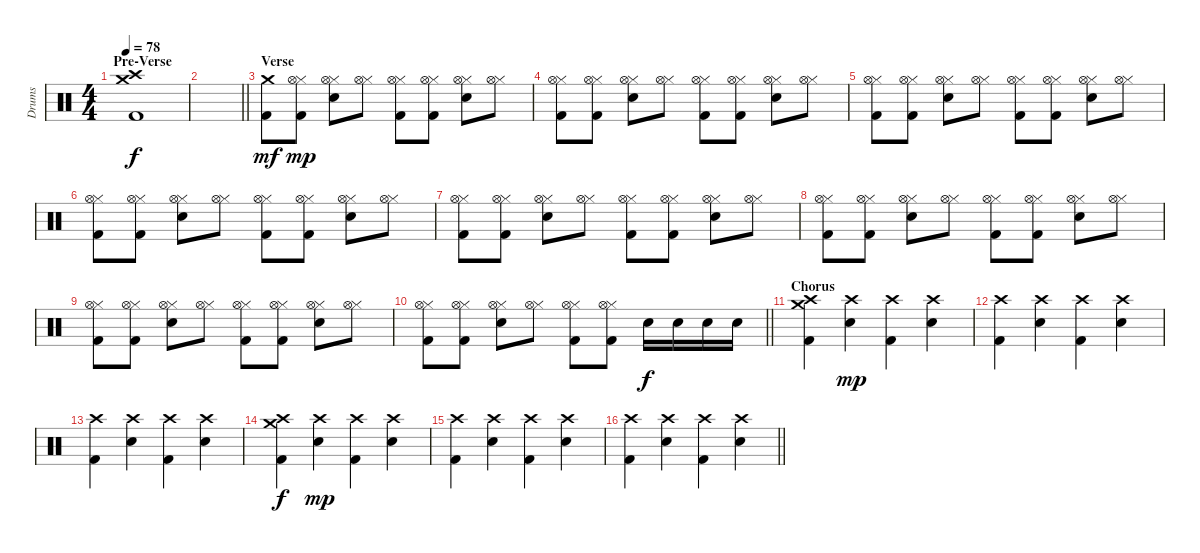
\track ("Drums" "Drums") {instrument percussion}
\staff {score}
\articulation defaults
\ts (4 4)
\section ("" "Pre-Verse")
\tempo 78
\clef neutral
\ks c
("Kick (hit) 2" "Crash medium (hit)" "Crash high (hit)").1{dy f} |
\barLineRight lightlight
|
\section ("" "Verse")
("Kick (hit) 2" "Crash medium (hit)").8{dy mf} ("Kick (hit) 2" "Hi-Hat (closed)" "Hi-Hat (open)").8{dy mp} ("Snare (hit) 2" "Hi-Hat (closed)" "Hi-Hat (open)").8 ("Hi-Hat (closed)" "Hi-Hat (open)").8 ("Kick (hit) 2" "Hi-Hat (closed)" "Hi-Hat (open)").8 ("Kick (hit) 2" "Hi-Hat (closed)" "Hi-Hat (open)").8 ("Snare (hit) 2" "Hi-Hat (closed)" "Hi-Hat (open)").8 ("Hi-Hat (closed)" "Hi-Hat (open)").8 |
("Kick (hit) 2" "Hi-Hat (closed)" "Hi-Hat (open)").8 ("Kick (hit) 2" "Hi-Hat (closed)" "Hi-Hat (open)").8 ("Snare (hit) 2" "Hi-Hat (closed)" "Hi-Hat (open)").8 ("Hi-Hat (closed)" "Hi-Hat (open)").8 ("Kick (hit) 2" "Hi-Hat (closed)" "Hi-Hat (open)").8 ("Kick (hit) 2" "Hi-Hat (closed)" "Hi-Hat (open)").8 ("Snare (hit) 2" "Hi-Hat (closed)" "Hi-Hat (open)").8 ("Hi-Hat (closed)" "Hi-Hat (open)").8 |
("Kick (hit) 2" "Hi-Hat (closed)" "Hi-Hat (open)").8 ("Kick (hit) 2" "Hi-Hat (closed)" "Hi-Hat (open)").8 ("Snare (hit) 2" "Hi-Hat (closed)" "Hi-Hat (open)").8 ("Hi-Hat (closed)" "Hi-Hat (open)").8 ("Kick (hit) 2" "Hi-Hat (closed)" "Hi-Hat (open)").8 ("Kick (hit) 2" "Hi-Hat (closed)" "Hi-Hat (open)").8 ("Snare (hit) 2" "Hi-Hat (closed)" "Hi-Hat (open)").8 ("Hi-Hat (closed)" "Hi-Hat (open)").8 |
("Kick (hit) 2" "Hi-Hat (closed)" "Hi-Hat (open)").8 ("Kick (hit) 2" "Hi-Hat (closed)" "Hi-Hat (open)").8 ("Snare (hit) 2" "Hi-Hat (closed)" "Hi-Hat (open)").8 ("Hi-Hat (closed)" "Hi-Hat (open)").8 ("Kick (hit) 2" "Hi-Hat (closed)" "Hi-Hat (open)").8 ("Kick (hit) 2" "Hi-Hat (closed)" "Hi-Hat (open)").8 ("Snare (hit) 2" "Hi-Hat (closed)" "Hi-Hat (open)").8 ("Hi-Hat (closed)" "Hi-Hat (open)").8 |
("Kick (hit) 2" "Hi-Hat (closed)" "Hi-Hat (open)").8 ("Kick (hit) 2" "Hi-Hat (closed)" "Hi-Hat (open)").8 ("Snare (hit) 2" "Hi-Hat (closed)" "Hi-Hat (open)").8 ("Hi-Hat (closed)" "Hi-Hat (open)").8 ("Kick (hit) 2" "Hi-Hat (closed)" "Hi-Hat (open)").8 ("Kick (hit) 2" "Hi-Hat (closed)" "Hi-Hat (open)").8 ("Snare (hit) 2" "Hi-Hat (closed)" "Hi-Hat (open)").8 ("Hi-Hat (closed)" "Hi-Hat (open)").8 |
("Kick (hit) 2" "Hi-Hat (closed)" "Hi-Hat (open)").8 ("Kick (hit) 2" "Hi-Hat (closed)" "Hi-Hat (open)").8 ("Snare (hit) 2" "Hi-Hat (closed)" "Hi-Hat (open)").8 ("Hi-Hat (closed)" "Hi-Hat (open)").8 ("Kick (hit) 2" "Hi-Hat (closed)" "Hi-Hat (open)").8 ("Kick (hit) 2" "Hi-Hat (closed)" "Hi-Hat (open)").8 ("Snare (hit) 2" "Hi-Hat (closed)" "Hi-Hat (open)").8 ("Hi-Hat (closed)" "Hi-Hat (open)").8 |
("Kick (hit) 2" "Hi-Hat (closed)" "Hi-Hat (open)").8 ("Kick (hit) 2" "Hi-Hat (closed)" "Hi-Hat (open)").8 ("Snare (hit) 2" "Hi-Hat (closed)" "Hi-Hat (open)").8 ("Hi-Hat (closed)" "Hi-Hat (open)").8 ("Kick (hit) 2" "Hi-Hat (closed)" "Hi-Hat (open)").8 ("Kick (hit) 2" "Hi-Hat (closed)" "Hi-Hat (open)").8 ("Snare (hit) 2" "Hi-Hat (closed)" "Hi-Hat (open)").8 ("Hi-Hat (closed)" "Hi-Hat (open)").8 |
\barLineRight lightlight
("Kick (hit) 2" "Hi-Hat (closed)" "Hi-Hat (open)").8 ("Kick (hit) 2" "Hi-Hat (closed)" "Hi-Hat (open)").8 ("Snare (hit) 2" "Hi-Hat (closed)" "Hi-Hat (open)").8 ("Hi-Hat (closed)" "Hi-Hat (open)").8 ("Kick (hit) 2" "Hi-Hat (closed)" "Hi-Hat (open)").8 ("Kick (hit) 2" "Hi-Hat (closed)" "Hi-Hat (open)").8 "Snare (hit) 2".16{dy f} "Snare (hit) 2".16 "Snare (hit) 2".16 "Snare (hit) 2".16 |
\section ("" "Chorus")
("Kick (hit) 2" "Crash high (hit)" "Crash medium (hit)").4 ("Snare (hit) 2" "Crash high (hit)").4{dy mp} ("Kick (hit) 2" "Crash high (hit)").4 ("Snare (hit) 2" "Crash high (hit)").4 |
("Kick (hit) 2" "Crash high (hit)").4 ("Snare (hit) 2" "Crash high (hit)").4 ("Kick (hit) 2" "Crash high (hit)").4 ("Snare (hit) 2" "Crash high (hit)").4 |
("Kick (hit) 2" "Crash high (hit)").4 ("Snare (hit) 2" "Crash high (hit)").4 ("Kick (hit) 2" "Crash high (hit)").4 ("Snare (hit) 2" "Crash high (hit)").4 |
("Kick (hit) 2" "Crash high (hit)" "Crash medium (hit)").4{dy f} ("Snare (hit) 2" "Crash high (hit)").4{dy mp} ("Kick (hit) 2" "Crash high (hit)").4 ("Snare (hit) 2" "Crash high (hit)").4 |
("Kick (hit) 2" "Crash high (hit)").4 ("Snare (hit) 2" "Crash high (hit)").4 ("Kick (hit) 2" "Crash high (hit)").4 ("Snare (hit) 2" "Crash high (hit)").4 |
\barLineRight lightlight
("Kick (hit) 2" "Crash high (hit)").4 ("Snare (hit) 2" "Crash high (hit)").4 ("Kick (hit) 2" "Crash high (hit)").4 ("Snare (hit) 2" "Crash high (hit)").4
